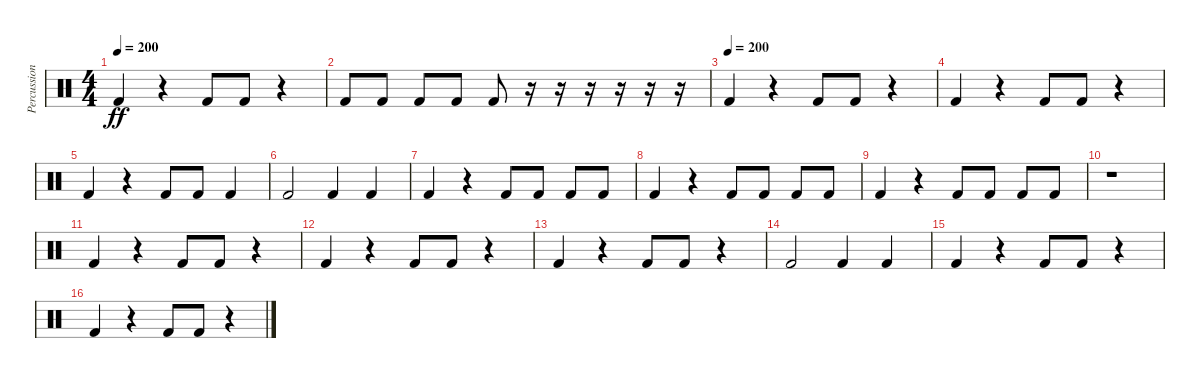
\track ("Percussions 2" "Percussion") {instrument percussion}
\staff {score}
\articulation defaults
\ts (4 4)
\tempo 200
\clef neutral
\ks c "Kick (hit) 2".4{dy ff}
r.4 "Kick (hit) 2".8 "Kick (hit) 2".8 r.4 |
"Kick (hit) 2".8 "Kick (hit) 2".8 "Kick (hit) 2".8 "Kick (hit) 2".8 "Kick (hit) 2".8 r.16 r.16 r.16 r.16 r.16 r.16 |
\tempo (200)
"Kick (hit) 2".4 r.4 "Kick (hit) 2".8 "Kick (hit) 2".8 r.4 |
"Kick (hit) 2".4 r.4 "Kick (hit) 2".8 "Kick (hit) 2".8 r.4 |
"Kick (hit) 2".4 r.4 "Kick (hit) 2".8 "Kick (hit) 2".8 "Kick (hit) 2".4 |
"Kick (hit) 2".2 "Kick (hit) 2".4 "Kick (hit) 2".4 |
"Kick (hit) 2".4 r.4 "Kick (hit) 2".8 "Kick (hit) 2".8 "Kick (hit) 2".8 "Kick (hit) 2".8 |
"Kick (hit) 2".4 r.4 "Kick (hit) 2".8 "Kick (hit) 2".8 "Kick (hit) 2".8 "Kick (hit) 2".8 |
"Kick (hit) 2".4 r.4 "Kick (hit) 2".8 "Kick (hit) 2".8 "Kick (hit) 2".8 "Kick (hit) 2".8 |
r.1 |
"Kick (hit) 2".4 r.4 "Kick (hit) 2".8 "Kick (hit) 2".8 r.4 |
"Kick (hit) 2".4 r.4 "Kick (hit) 2".8 "Kick (hit) 2".8 r.4 |
"Kick (hit) 2".4 r.4 "Kick (hit) 2".8 "Kick (hit) 2".8 r.4 |
"Kick (hit) 2".2 "Kick (hit) 2".4 "Kick (hit) 2".4 |
"Kick (hit) 2".4 r.4 "Kick (hit) 2".8 "Kick (hit) 2".8 r.4 |
"Kick (hit) 2".4 r.4 "Kick (hit) 2".8 "Kick (hit) 2".8 r.4
